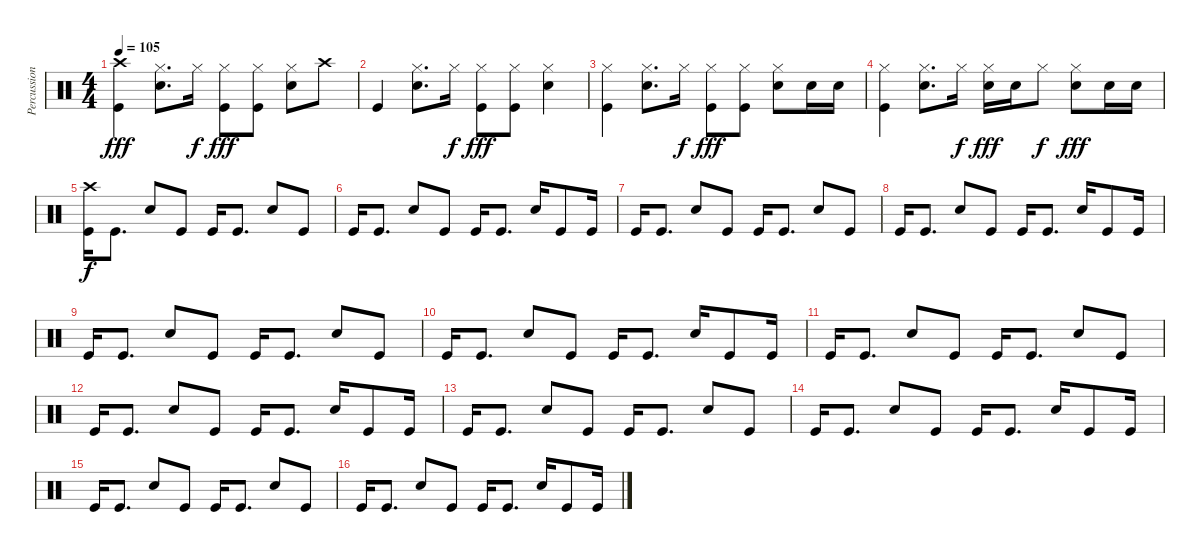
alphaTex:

\track ("Percussion" "Percussion") {instrument percussion}
\staff {score}
\articulation defaults
\ts (4 4)
\tempo 105
\clef neutral
\ks c
("Crash high (hit)" "Kick (hit)").4{dy fff} ("Hi-Hat (closed)" "Electric Snare (hit)").8{d} "Hi-Hat (closed)".16{dy f} ("Hi-Hat (closed)" "Kick (hit)").8{dy fff} ("Hi-Hat (closed)" "Kick (hit)").8 ("Hi-Hat (closed)" "Electric Snare (hit)").8 "Crash high (hit)".8 |
"Kick (hit)".4 ("Hi-Hat (closed)" "Electric Snare (hit)").8{d} "Hi-Hat (closed)".16{dy f} ("Hi-Hat (closed)" "Kick (hit)").8{dy fff} ("Hi-Hat (closed)" "Kick (hit)").8 ("Hi-Hat (closed)" "Electric Snare (hit)").4 |
("Hi-Hat (closed)" "Kick (hit)").4 ("Hi-Hat (closed)" "Electric Snare (hit)").8{d} "Hi-Hat (closed)".16{dy f} ("Hi-Hat (closed)" "Kick (hit)").8{dy fff} ("Hi-Hat (closed)" "Kick (hit)").8 ("Hi-Hat (closed)" "Electric Snare (hit)").8 "Electric Snare (hit)".16 "Electric Snare (hit)".16 |
("Hi-Hat (closed)" "Kick (hit)").4 ("Hi-Hat (closed)" "Electric Snare (hit)").8{d} "Hi-Hat (closed)".16{dy f} ("Hi-Hat (closed)" "Electric Snare (hit)").16{dy fff} "Electric Snare (hit)".16 "Hi-Hat (closed)".8{dy f} ("Hi-Hat (closed)" "Electric Snare (hit)").8{dy fff} "Electric Snare (hit)".16 "Electric Snare (hit)".16 |
("Crash high (hit)" "Kick (hit)").16{dy f} "Kick (hit)".8{d} "Electric Snare (hit)".8 "Kick (hit)".8 "Kick (hit)".16 "Kick (hit)".8{d} "Electric Snare (hit)".8 "Kick (hit)".8 |
"Kick (hit)".16 "Kick (hit)".8{d} "Electric Snare (hit)".8 "Kick (hit)".8 "Kick (hit)".16 "Kick (hit)".8{d} "Electric Snare (hit)".16 "Kick (hit)".8 "Kick (hit)".16 |
"Kick (hit)".16 "Kick (hit)".8{d} "Electric Snare (hit)".8 "Kick (hit)".8 "Kick (hit)".16 "Kick (hit)".8{d} "Electric Snare (hit)".8 "Kick (hit)".8 |
"Kick (hit)".16 "Kick (hit)".8{d} "Electric Snare (hit)".8 "Kick (hit)".8 "Kick (hit)".16 "Kick (hit)".8{d} "Electric Snare (hit)".16 "Kick (hit)".8 "Kick (hit)".16 |
"Kick (hit)".16 "Kick (hit)".8{d} "Electric Snare (hit)".8 "Kick (hit)".8 "Kick (hit)".16 "Kick (hit)".8{d} "Electric Snare (hit)".8 "Kick (hit)".8 |
"Kick (hit)".16 "Kick (hit)".8{d} "Electric Snare (hit)".8 "Kick (hit)".8 "Kick (hit)".16 "Kick (hit)".8{d} "Electric Snare (hit)".16 "Kick (hit)".8 "Kick (hit)".16 |
"Kick (hit)".16 "Kick (hit)".8{d} "Electric Snare (hit)".8 "Kick (hit)".8 "Kick (hit)".16 "Kick (hit)".8{d} "Electric Snare (hit)".8 "Kick (hit)".8 |
"Kick (hit)".16 "Kick (hit)".8{d} "Electric Snare (hit)".8 "Kick (hit)".8 "Kick (hit)".16 "Kick (hit)".8{d} "Electric Snare (hit)".16 "Kick (hit)".8 "Kick (hit)".16 |
"Kick (hit)".16 "Kick (hit)".8{d} "Electric Snare (hit)".8 "Kick (hit)".8 "Kick (hit)".16 "Kick (hit)".8{d} "Electric Snare (hit)".8 "Kick (hit)".8 |
"Kick (hit)".16 "Kick (hit)".8{d} "Electric Snare (hit)".8 "Kick (hit)".8 "Kick (hit)".16 "Kick (hit)".8{d} "Electric Snare (hit)".16 "Kick (hit)".8 "Kick (hit)".16 |
"Kick (hit)".16 "Kick (hit)".8{d} "Electric Snare (hit)".8 "Kick (hit)".8 "Kick (hit)".16 "Kick (hit)".8{d} "Electric Snare (hit)".8 "Kick (hit)".8 |
"Kick (hit)".16 "Kick (hit)".8{d} "Electric Snare (hit)".8 "Kick (hit)".8 "Kick (hit)".16 "Kick (hit)".8{d} "Electric Snare (hit)".16 "Kick (hit)".8 "Kick (hit)".16
